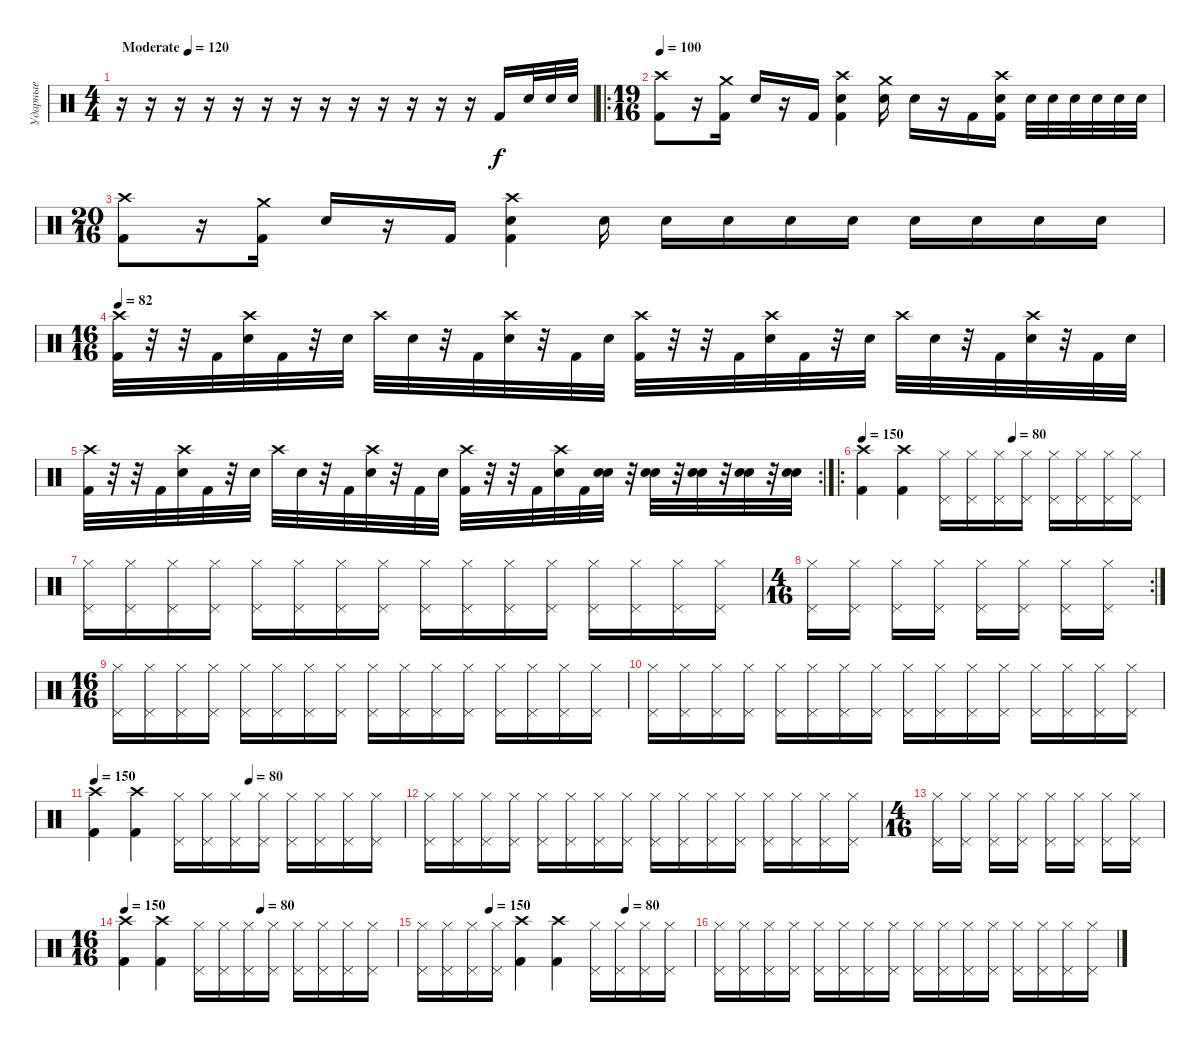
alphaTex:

\track ("Ударные" "Ударные") {instrument percussion}
\staff {score}
\articulation defaults
\ts (4 4)
\tempo (120 "Moderate")
\tempo 100
\tempo (120 "Moderate")
\clef neutral
\ks c
r.16{dy f} r.16 r.16 r.16 r.16 r.16 r.16 r.16 r.16 r.16 r.16 r.16 r.16 "Kick (hit) 2".16 "Electric Snare (hit)".32 "Electric Snare (hit)".32 "Electric Snare (hit)".32 |
\ro
\ts (19 16)
\tempo 100
("Crash high (hit)" "Kick (hit) 2").8 r.16 ("Crash medium (hit)" "Kick (hit) 2").16 "Electric Snare (hit)".16 r.16 "Kick (hit) 2".16 ("Crash high (hit)" "Electric Snare (hit)" "Kick (hit) 2").4 ("Crash medium (hit)" "Snare (hit) 2").16 "Electric Snare (hit)".16 r.16 "Kick (hit) 2".16 ("Crash high (hit)" "Kick (hit) 2" "Electric Snare (hit)").16 "Electric Snare (hit)".32 "Electric Snare (hit)".32 "Electric Snare (hit)".32 "Electric Snare (hit)".32 "Electric Snare (hit)".32 "Electric Snare (hit)".32 |
\ts (20 16)
("Crash high (hit)" "Kick (hit) 2").8 r.16 ("Crash medium (hit)" "Kick (hit) 2").16 "Electric Snare (hit)".16 r.16 "Kick (hit) 2".16 ("Crash high (hit)" "Electric Snare (hit)" "Kick (hit) 2").4 "Snare (hit) 2".16 "Snare (hit) 2".16 "Snare (hit) 2".16 "Snare (hit) 2".16 "Snare (hit) 2".16 "Electric Snare (hit)".16 "Electric Snare (hit)".16 "Electric Snare (hit)".16 "Electric Snare (hit)".16 |
\ts (16 16)
\tempo 82
("Crash high (hit)" "Kick (hit) 2").32 r.32 r.32 "Kick (hit) 2".32 ("Crash high (hit)" "Electric Snare (hit)").32 "Kick (hit) 2".32 r.32 "Electric Snare (hit)".32 "Crash high (hit)".32 "Electric Snare (hit)".32 r.32 "Kick (hit) 2".32 ("Crash high (hit)" "Electric Snare (hit)").32 r.32 "Kick (hit) 2".32 "Electric Snare (hit)".32 ("Crash high (hit)" "Kick (hit) 2").32 r.32 r.32 "Kick (hit) 2".32 ("Crash high (hit)" "Electric Snare (hit)").32 "Kick (hit) 2".32 r.32 "Electric Snare (hit)".32 "Crash high (hit)".32 "Electric Snare (hit)".32 r.32 "Kick (hit) 2".32 ("Crash high (hit)" "Electric Snare (hit)").32 r.32 "Kick (hit) 2".32 "Electric Snare (hit)".32 |
\rc 2
("Crash high (hit)" "Kick (hit) 2").32 r.32 r.32 "Kick (hit) 2".32 ("Crash high (hit)" "Electric Snare (hit)").32 "Kick (hit) 2".32 r.32 "Electric Snare (hit)".32 "Crash high (hit)".32 "Electric Snare (hit)".32 r.32 "Kick (hit) 2".32 ("Crash high (hit)" "Electric Snare (hit)").32 r.32 "Kick (hit) 2".32 "Electric Snare (hit)".32 ("Crash high (hit)" "Kick (hit) 2").32 r.32 r.32 "Kick (hit) 2".32 ("Crash high (hit)" "Electric Snare (hit)").32 "Kick (hit) 2".32 ("Snare (hit) 2" "Electric Snare (hit)").32 r.32 ("Snare (hit) 2" "Electric Snare (hit)").32 r.32 ("Snare (hit) 2" "Electric Snare (hit)").32 r.32 ("Snare (hit) 2" "Electric Snare (hit)").32 r.32 ("Snare (hit) 2" "Electric Snare (hit)").32 |
\ro
\tempo 150
\tempo (80 0.5)
("Crash high (hit)" "Kick (hit) 2").4 ("Crash high (hit)" "Kick (hit) 2").4 ("Hi-Hat (closed)" "Pedal Hi-Hat (hit)").16 ("Hi-Hat (closed)" "Pedal Hi-Hat (hit)").16 ("Hi-Hat (closed)" "Pedal Hi-Hat (hit)").16 ("Hi-Hat (closed)" "Pedal Hi-Hat (hit)").16 ("Hi-Hat (closed)" "Pedal Hi-Hat (hit)").16 ("Hi-Hat (closed)" "Pedal Hi-Hat (hit)").16 ("Hi-Hat (closed)" "Pedal Hi-Hat (hit)").16 ("Hi-Hat (closed)" "Pedal Hi-Hat (hit)").16 |
("Hi-Hat (closed)" "Pedal Hi-Hat (hit)").16 ("Hi-Hat (closed)" "Pedal Hi-Hat (hit)").16 ("Hi-Hat (closed)" "Pedal Hi-Hat (hit)").16 ("Hi-Hat (closed)" "Pedal Hi-Hat (hit)").16 ("Hi-Hat (closed)" "Pedal Hi-Hat (hit)").16 ("Hi-Hat (closed)" "Pedal Hi-Hat (hit)").16 ("Hi-Hat (closed)" "Pedal Hi-Hat (hit)").16 ("Hi-Hat (closed)" "Pedal Hi-Hat (hit)").16 ("Hi-Hat (closed)" "Pedal Hi-Hat (hit)").16 ("Hi-Hat (closed)" "Pedal Hi-Hat (hit)").16 ("Hi-Hat (closed)" "Pedal Hi-Hat (hit)").16 ("Hi-Hat (closed)" "Pedal Hi-Hat (hit)").16 ("Hi-Hat (closed)" "Pedal Hi-Hat (hit)").16 ("Hi-Hat (closed)" "Pedal Hi-Hat (hit)").16 ("Hi-Hat (closed)" "Pedal Hi-Hat (hit)").16 ("Hi-Hat (closed)" "Pedal Hi-Hat (hit)").16 |
\rc 2
\ts (4 16)
("Hi-Hat (closed)" "Pedal Hi-Hat (hit)").16 ("Hi-Hat (closed)" "Pedal Hi-Hat (hit)").16 ("Hi-Hat (closed)" "Pedal Hi-Hat (hit)").16 ("Hi-Hat (closed)" "Pedal Hi-Hat (hit)").16 ("Hi-Hat (closed)" "Pedal Hi-Hat (hit)").16 ("Hi-Hat (closed)" "Pedal Hi-Hat (hit)").16 ("Hi-Hat (closed)" "Pedal Hi-Hat (hit)").16 ("Hi-Hat (closed)" "Pedal Hi-Hat (hit)").16 |
\ts (16 16)
("Hi-Hat (closed)" "Pedal Hi-Hat (hit)").16 ("Hi-Hat (closed)" "Pedal Hi-Hat (hit)").16 ("Hi-Hat (closed)" "Pedal Hi-Hat (hit)").16 ("Hi-Hat (closed)" "Pedal Hi-Hat (hit)").16 ("Hi-Hat (closed)" "Pedal Hi-Hat (hit)").16 ("Hi-Hat (closed)" "Pedal Hi-Hat (hit)").16 ("Hi-Hat (closed)" "Pedal Hi-Hat (hit)").16 ("Hi-Hat (closed)" "Pedal Hi-Hat (hit)").16 ("Hi-Hat (closed)" "Pedal Hi-Hat (hit)").16 ("Hi-Hat (closed)" "Pedal Hi-Hat (hit)").16 ("Hi-Hat (closed)" "Pedal Hi-Hat (hit)").16 ("Hi-Hat (closed)" "Pedal Hi-Hat (hit)").16 ("Hi-Hat (closed)" "Pedal Hi-Hat (hit)").16 ("Hi-Hat (closed)" "Pedal Hi-Hat (hit)").16 ("Hi-Hat (closed)" "Pedal Hi-Hat (hit)").16 ("Hi-Hat (closed)" "Pedal Hi-Hat (hit)").16 |
("Hi-Hat (closed)" "Pedal Hi-Hat (hit)").16 ("Hi-Hat (closed)" "Pedal Hi-Hat (hit)").16 ("Hi-Hat (closed)" "Pedal Hi-Hat (hit)").16 ("Hi-Hat (closed)" "Pedal Hi-Hat (hit)").16 ("Hi-Hat (closed)" "Pedal Hi-Hat (hit)").16 ("Hi-Hat (closed)" "Pedal Hi-Hat (hit)").16 ("Hi-Hat (closed)" "Pedal Hi-Hat (hit)").16 ("Hi-Hat (closed)" "Pedal Hi-Hat (hit)").16 ("Hi-Hat (closed)" "Pedal Hi-Hat (hit)").16 ("Hi-Hat (closed)" "Pedal Hi-Hat (hit)").16 ("Hi-Hat (closed)" "Pedal Hi-Hat (hit)").16 ("Hi-Hat (closed)" "Pedal Hi-Hat (hit)").16 ("Hi-Hat (closed)" "Pedal Hi-Hat (hit)").16 ("Hi-Hat (closed)" "Pedal Hi-Hat (hit)").16 ("Hi-Hat (closed)" "Pedal Hi-Hat (hit)").16 ("Hi-Hat (closed)" "Pedal Hi-Hat (hit)").16 |
\tempo 150
\tempo (80 0.5)
("Crash high (hit)" "Kick (hit) 2").4 ("Crash high (hit)" "Kick (hit) 2").4 ("Hi-Hat (closed)" "Pedal Hi-Hat (hit)").16 ("Hi-Hat (closed)" "Pedal Hi-Hat (hit)").16 ("Hi-Hat (closed)" "Pedal Hi-Hat (hit)").16 ("Hi-Hat (closed)" "Pedal Hi-Hat (hit)").16 ("Hi-Hat (closed)" "Pedal Hi-Hat (hit)").16 ("Hi-Hat (closed)" "Pedal Hi-Hat (hit)").16 ("Hi-Hat (closed)" "Pedal Hi-Hat (hit)").16 ("Hi-Hat (closed)" "Pedal Hi-Hat (hit)").16 |
("Hi-Hat (closed)" "Pedal Hi-Hat (hit)").16 ("Hi-Hat (closed)" "Pedal Hi-Hat (hit)").16 ("Hi-Hat (closed)" "Pedal Hi-Hat (hit)").16 ("Hi-Hat (closed)" "Pedal Hi-Hat (hit)").16 ("Hi-Hat (closed)" "Pedal Hi-Hat (hit)").16 ("Hi-Hat (closed)" "Pedal Hi-Hat (hit)").16 ("Hi-Hat (closed)" "Pedal Hi-Hat (hit)").16 ("Hi-Hat (closed)" "Pedal Hi-Hat (hit)").16 ("Hi-Hat (closed)" "Pedal Hi-Hat (hit)").16 ("Hi-Hat (closed)" "Pedal Hi-Hat (hit)").16 ("Hi-Hat (closed)" "Pedal Hi-Hat (hit)").16 ("Hi-Hat (closed)" "Pedal Hi-Hat (hit)").16 ("Hi-Hat (closed)" "Pedal Hi-Hat (hit)").16 ("Hi-Hat (closed)" "Pedal Hi-Hat (hit)").16 ("Hi-Hat (closed)" "Pedal Hi-Hat (hit)").16 ("Hi-Hat (closed)" "Pedal Hi-Hat (hit)").16 |
\ts (4 16)
("Hi-Hat (closed)" "Pedal Hi-Hat (hit)").16 ("Hi-Hat (closed)" "Pedal Hi-Hat (hit)").16 ("Hi-Hat (closed)" "Pedal Hi-Hat (hit)").16 ("Hi-Hat (closed)" "Pedal Hi-Hat (hit)").16 ("Hi-Hat (closed)" "Pedal Hi-Hat (hit)").16 ("Hi-Hat (closed)" "Pedal Hi-Hat (hit)").16 ("Hi-Hat (closed)" "Pedal Hi-Hat (hit)").16 ("Hi-Hat (closed)" "Pedal Hi-Hat (hit)").16 |
\ts (16 16)
\tempo 150
\tempo (80 0.5)
("Crash high (hit)" "Kick (hit) 2").4 ("Crash high (hit)" "Kick (hit) 2").4 ("Hi-Hat (closed)" "Pedal Hi-Hat (hit)").16 ("Hi-Hat (closed)" "Pedal Hi-Hat (hit)").16 ("Hi-Hat (closed)" "Pedal Hi-Hat (hit)").16 ("Hi-Hat (closed)" "Pedal Hi-Hat (hit)").16 ("Hi-Hat (closed)" "Pedal Hi-Hat (hit)").16 ("Hi-Hat (closed)" "Pedal Hi-Hat (hit)").16 ("Hi-Hat (closed)" "Pedal Hi-Hat (hit)").16 ("Hi-Hat (closed)" "Pedal Hi-Hat (hit)").16 |
\tempo (150 0.25)
\tempo (80 0.75)
("Hi-Hat (closed)" "Pedal Hi-Hat (hit)").16 ("Hi-Hat (closed)" "Pedal Hi-Hat (hit)").16 ("Hi-Hat (closed)" "Pedal Hi-Hat (hit)").16 ("Hi-Hat (closed)" "Pedal Hi-Hat (hit)").16 ("Crash high (hit)" "Kick (hit) 2").4 ("Crash high (hit)" "Kick (hit) 2").4 ("Hi-Hat (closed)" "Pedal Hi-Hat (hit)").16 ("Hi-Hat (closed)" "Pedal Hi-Hat (hit)").16 ("Hi-Hat (closed)" "Pedal Hi-Hat (hit)").16 ("Hi-Hat (closed)" "Pedal Hi-Hat (hit)").16 |
("Hi-Hat (closed)" "Pedal Hi-Hat (hit)").16 ("Hi-Hat (closed)" "Pedal Hi-Hat (hit)").16 ("Hi-Hat (closed)" "Pedal Hi-Hat (hit)").16 ("Hi-Hat (closed)" "Pedal Hi-Hat (hit)").16 ("Hi-Hat (closed)" "Pedal Hi-Hat (hit)").16 ("Hi-Hat (closed)" "Pedal Hi-Hat (hit)").16 ("Hi-Hat (closed)" "Pedal Hi-Hat (hit)").16 ("Hi-Hat (closed)" "Pedal Hi-Hat (hit)").16 ("Hi-Hat (closed)" "Pedal Hi-Hat (hit)").16 ("Hi-Hat (closed)" "Pedal Hi-Hat (hit)").16 ("Hi-Hat (closed)" "Pedal Hi-Hat (hit)").16 ("Hi-Hat (closed)" "Pedal Hi-Hat (hit)").16 ("Hi-Hat (closed)" "Pedal Hi-Hat (hit)").16 ("Hi-Hat (closed)" "Pedal Hi-Hat (hit)").16 ("Hi-Hat (closed)" "Pedal Hi-Hat (hit)").16 ("Hi-Hat (closed)" "Pedal Hi-Hat (hit)").16
